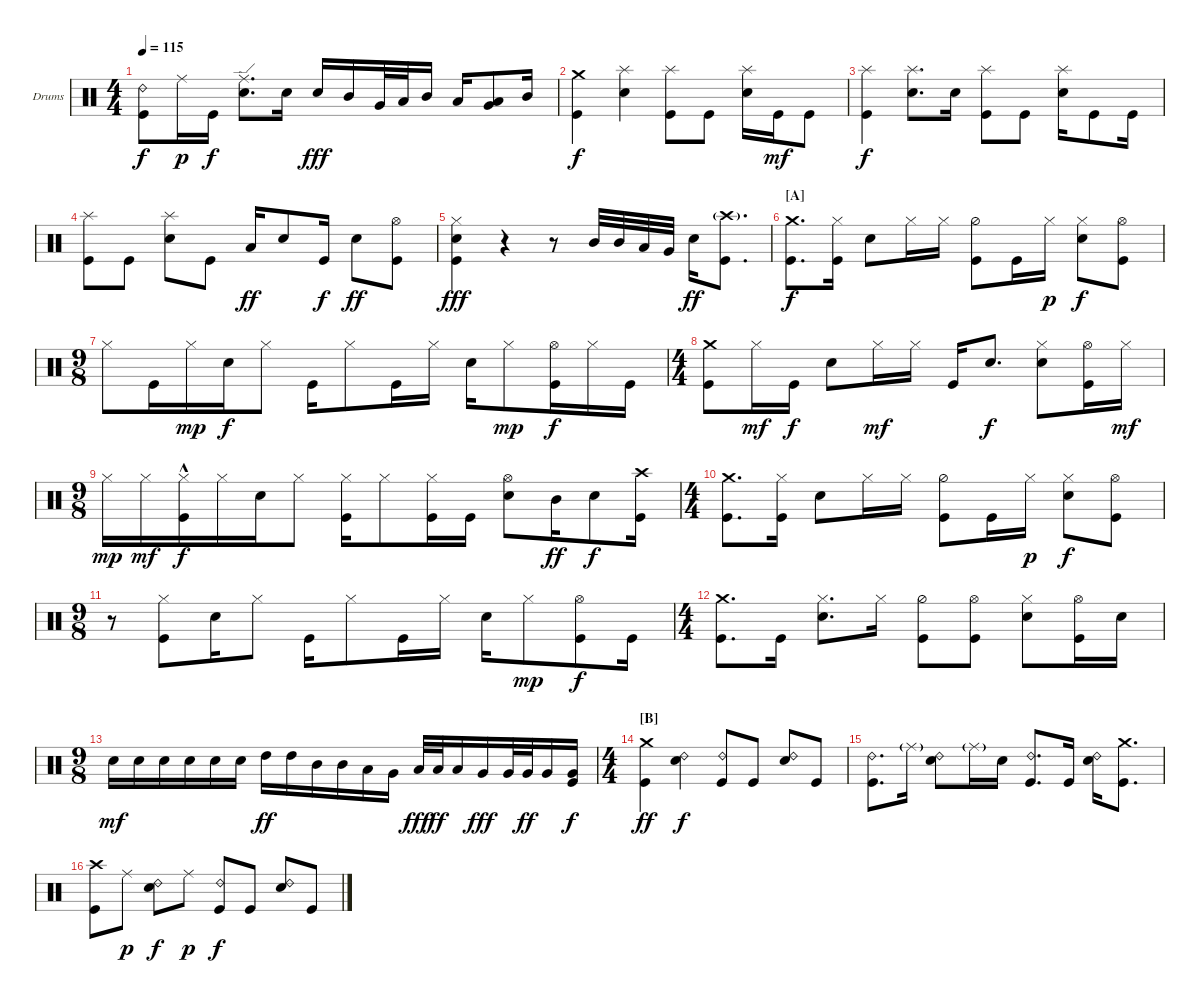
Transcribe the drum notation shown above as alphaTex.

\defaultSystemsLayout 4
\bracketExtendMode groupsimilarinstruments
\firstSystemTrackNameOrientation horizontal
\otherSystemsTrackNameOrientation horizontal
\track ("Batterie " "Drums") {instrument percussion}
\staff {score}
\articulation defaults
\ts (4 4)
\tempo 115
\clef neutral
\ks c
("Kick (hit)" "Ride (bell) 2").8{dy f} "Ride (middle)".16{dy p} "Kick (hit)".16{dy f} ("Snare (hit) 2" "Ride (edge)").8{d} "Snare (hit) 2".16 "Snare (hit) 2".16{dy fff} "Mid Tom (hit)".16 "Very Low Tom (hit)".32 "Low Tom (hit)".32 "Mid Tom (hit)".16 "Low Tom (hit)".16 ("Very Low Tom (hit)" "Low Tom (hit)").8 "Mid Tom (hit)".16 |
("Kick (hit)" "Crash medium (hit)").4{dy f} ("Snare (hit) 2" "Splash (hit)").4 ("Kick (hit)" "Splash (hit)").8 "Kick (hit)".8 ("Snare (hit) 2" "Splash (hit)").16 "Kick (hit)".16{dy mf} "Kick (hit)".8 |
("Kick (hit)" "Splash (hit)").4{dy f} ("Snare (hit) 2" "Splash (hit)").8{d} "Snare (hit) 2".16 ("Kick (hit)" "Splash (hit)").8 "Kick (hit)".8 ("Snare (hit) 2" "Splash (hit)").16 "Kick (hit)".8 "Kick (hit)".16 |
("Kick (hit)" "Splash (hit)").8 "Kick (hit)".8 ("Snare (hit) 2" "Splash (hit)").8 "Kick (hit)".8 "Low Tom (hit)".16{dy ff} "Snare (hit) 2".8 "Kick (hit)".16{dy f} "Snare (hit) 2".8{dy ff} ("Kick (hit)" "Hi-Hat (open)").8 |
("Snare (hit) 2" "Hi-Hat (closed)" "Kick (hit)").4{dy fff} r.4 r.8 "Mid Tom (hit)".32 "Mid Tom (hit)".32 "Low Tom (hit)".32 "Very Low Tom (hit)".32 "Snare (hit) 2".16{dy ff} ("Kick (hit)" "Crash high (hit)"{g}).8{d} |
\section ("A" "")
("Kick (hit)" "Crash medium (hit)").8{d dy f} ("Kick (hit)" "Hi-Hat (closed)").16 "Snare (hit) 2".8 "Hi-Hat (closed)".16 "Hi-Hat (closed)".16 ("Hi-Hat (half)" "Kick (hit)").8 "Kick (hit)".16 "Hi-Hat (closed)".16{dy p} ("Snare (hit) 2" "Hi-Hat (closed)").8{dy f} ("Kick (hit)" "Hi-Hat (open)").8 |
\ts (9 8)
"Hi-Hat (closed)".8 "Kick (hit)".16 "Hi-Hat (closed)".16{dy mp} "Snare (hit) 2".16{dy f} "Hi-Hat (closed)".8 "Kick (hit)".16 "Hi-Hat (closed)".8 "Kick (hit)".16 "Hi-Hat (closed)".16 "Snare (hit) 2".16 "Hi-Hat (closed)".8{dy mp} ("Kick (hit)" "Hi-Hat (open)").16{dy f} "Hi-Hat (closed)".16 "Kick (hit)".16 |
\ts (4 4)
("Kick (hit)" "Crash medium (hit)").8 "Hi-Hat (closed)".16{dy mf} "Kick (hit)".16{dy f} "Snare (hit) 2".8 "Hi-Hat (closed)".16{dy mf} "Hi-Hat (closed)".16 "Kick (hit)".16 "Snare (hit) 2".8{d dy f} ("Snare (hit) 2" "Hi-Hat (closed)").8 ("Kick (hit)" "Hi-Hat (open)").16 "Hi-Hat (closed)".16{dy mf} |
\ts (9 8)
"Hi-Hat (closed)".16{dy mp} "Hi-Hat (closed)".16{dy mf} ("Kick (hit)" "Hi-Hat (closed)"{hac}).16{dy f} "Hi-Hat (closed)".16 "Snare (hit) 2".16 "Hi-Hat (closed)".8 ("Kick (hit)" "Hi-Hat (closed)").16 "Hi-Hat (closed)".8 ("Kick (hit)" "Hi-Hat (closed)").16 "Kick (hit)".16 ("Snare (hit) 2" "Hi-Hat (open)").8 "Mid Tom (hit)".16{dy ff} "Snare (hit) 2".8{dy f} ("Kick (hit)" "Crash high (hit)").16 |
\ts (4 4)
("Kick (hit)" "Crash medium (hit)").8{d} ("Kick (hit)" "Hi-Hat (closed)").16 "Snare (hit) 2".8 "Hi-Hat (closed)".16 "Hi-Hat (closed)".16 ("Hi-Hat (half)" "Kick (hit)").8 "Kick (hit)".16 "Hi-Hat (closed)".16{dy p} ("Snare (hit) 2" "Hi-Hat (closed)").8{dy f} ("Kick (hit)" "Hi-Hat (open)").8 |
\ts (9 8)
r.8 ("Kick (hit)" "Hi-Hat (closed)").8 "Snare (hit) 2".16 "Hi-Hat (closed)".8 "Kick (hit)".16 "Hi-Hat (closed)".8 "Kick (hit)".16 "Hi-Hat (closed)".16 "Snare (hit) 2".16 "Hi-Hat (closed)".8{dy mp} ("Kick (hit)" "Hi-Hat (open)").8{dy f} "Kick (hit)".16 |
\ts (4 4)
("Kick (hit)" "Crash medium (hit)").8{d} "Kick (hit)".16 ("Snare (hit) 2" "Hi-Hat (closed)").8{d} "Hi-Hat (closed)".16 ("Hi-Hat (half)" "Kick (hit)").8 ("Kick (hit)" "Hi-Hat (open)").8 ("Snare (hit) 2" "Hi-Hat (closed)").8 ("Kick (hit)" "Hi-Hat (open)").16 "Snare (hit) 2".16 |
\ts (9 8)
"Snare (hit) 2".16{dy mf} "Snare (hit) 2".16 "Snare (hit) 2".16 "Snare (hit) 2".16 "Snare (hit) 2".16 "Snare (hit) 2".16 "High Tom (hit)".16{dy ff} "High Tom (hit)".16 "Mid Tom (hit)".16 "Mid Tom (hit)".16 "Low Tom (hit)".16 "Very Low Tom (hit)".16 "Low Tom (hit)".32{dy fff} "Low Tom (hit)".32{dy ff} "Low Tom (hit)".16 "Very Low Tom (hit)".16{dy fff} "Very Low Tom (hit)".32 "Very Low Tom (hit)".32{dy ff} "Very Low Tom (hit)".16 ("Kick (hit)" "Very Low Tom (hit)").16{dy f} |
\ts (4 4)
\section ("B" "")
("Kick (hit)" "Crash medium (hit)").4{dy ff} ("Snare (hit) 2" "Ride (bell) 2").4{dy f} ("Kick (hit)" "Ride (bell) 2").8 "Kick (hit)".8 ("Snare (hit) 2" "Ride (bell) 2").8 "Kick (hit)".8 |
("Kick (hit)" "Ride (bell) 2").8{d} "Ride (middle)"{g}.16 ("Snare (hit) 2" "Ride (bell) 2").8 "Ride (middle)"{g}.16 "Snare (hit) 2".16 ("Kick (hit)" "Ride (bell) 2").8{d} "Kick (hit)".16 ("Snare (hit) 2" "Ride (bell) 2").16 ("Kick (hit)" "Crash medium (hit)").8{d} |
("Kick (hit)" "Crash high (hit)").8 "Ride (middle)".8{dy p} ("Snare (hit) 2" "Ride (bell) 2").8{dy f} "Ride (middle)".8{dy p} ("Kick (hit)" "Ride (bell) 2").8{dy f} "Kick (hit)".8 ("Snare (hit) 2" "Ride (bell) 2").8 "Kick (hit)".8
